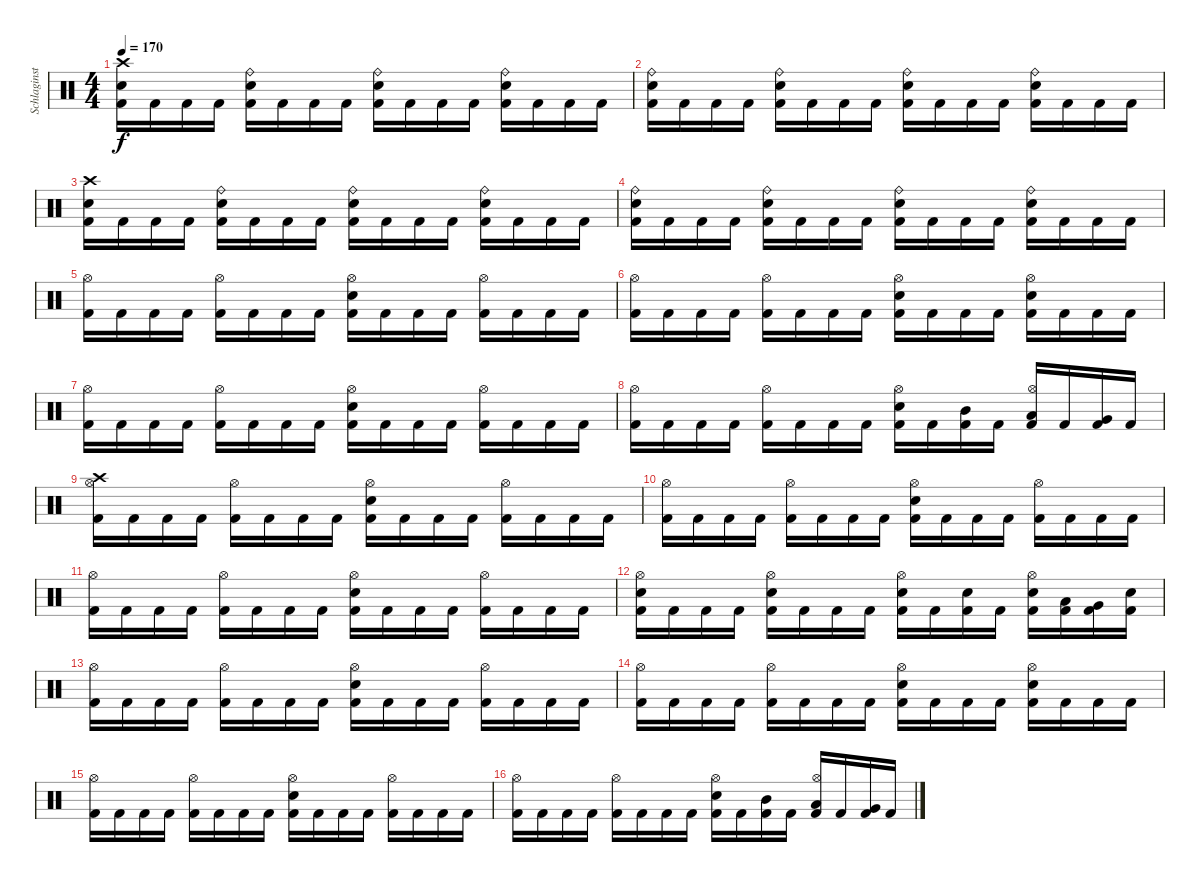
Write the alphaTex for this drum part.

\track ("Schlaginstrumente - Auswahl" "Schlaginst") {instrument percussion}
\staff {score}
\articulation defaults
\ts (4 4)
\tempo 170
\clef neutral
\ks c
("Crash high (hit)" "Snare (hit) 2" "Kick (hit) 2").16{dy f} "Kick (hit) 2".16 "Kick (hit) 2".16 "Kick (hit) 2".16 ("Ride (bell)" "Snare (hit) 2" "Kick (hit) 2").16 "Kick (hit) 2".16 "Kick (hit) 2".16 "Kick (hit) 2".16 ("Ride (bell)" "Snare (hit) 2" "Kick (hit) 2").16 "Kick (hit) 2".16 "Kick (hit) 2".16 "Kick (hit) 2".16 ("Ride (bell)" "Snare (hit) 2" "Kick (hit) 2").16 "Kick (hit) 2".16 "Kick (hit) 2".16 "Kick (hit) 2".16 |
("Ride (bell)" "Snare (hit) 2" "Kick (hit) 2").16 "Kick (hit) 2".16 "Kick (hit) 2".16 "Kick (hit) 2".16 ("Ride (bell)" "Snare (hit) 2" "Kick (hit) 2").16 "Kick (hit) 2".16 "Kick (hit) 2".16 "Kick (hit) 2".16 ("Ride (bell)" "Snare (hit) 2" "Kick (hit) 2").16 "Kick (hit) 2".16 "Kick (hit) 2".16 "Kick (hit) 2".16 ("Ride (bell)" "Snare (hit) 2" "Kick (hit) 2").16 "Kick (hit) 2".16 "Kick (hit) 2".16 "Kick (hit) 2".16 |
("Crash high (hit)" "Snare (hit) 2" "Kick (hit) 2").16 "Kick (hit) 2".16 "Kick (hit) 2".16 "Kick (hit) 2".16 ("Ride (bell)" "Snare (hit) 2" "Kick (hit) 2").16 "Kick (hit) 2".16 "Kick (hit) 2".16 "Kick (hit) 2".16 ("Ride (bell)" "Snare (hit) 2" "Kick (hit) 2").16 "Kick (hit) 2".16 "Kick (hit) 2".16 "Kick (hit) 2".16 ("Ride (bell)" "Snare (hit) 2" "Kick (hit) 2").16 "Kick (hit) 2".16 "Kick (hit) 2".16 "Kick (hit) 2".16 |
("Ride (bell)" "Snare (hit) 2" "Kick (hit) 2").16 "Kick (hit) 2".16 "Kick (hit) 2".16 "Kick (hit) 2".16 ("Ride (bell)" "Snare (hit) 2" "Kick (hit) 2").16 "Kick (hit) 2".16 "Kick (hit) 2".16 "Kick (hit) 2".16 ("Ride (bell)" "Snare (hit) 2" "Kick (hit) 2").16 "Kick (hit) 2".16 "Kick (hit) 2".16 "Kick (hit) 2".16 ("Ride (bell)" "Snare (hit) 2" "Kick (hit) 2").16 "Kick (hit) 2".16 "Kick (hit) 2".16 "Kick (hit) 2".16 |
("Hi-Hat (open)" "Kick (hit) 2").16 "Kick (hit) 2".16 "Kick (hit) 2".16 "Kick (hit) 2".16 ("Hi-Hat (open)" "Kick (hit) 2").16 "Kick (hit) 2".16 "Kick (hit) 2".16 "Kick (hit) 2".16 ("Hi-Hat (open)" "Snare (hit) 2" "Kick (hit) 2").16 "Kick (hit) 2".16 "Kick (hit) 2".16 "Kick (hit) 2".16 ("Hi-Hat (open)" "Kick (hit) 2").16 "Kick (hit) 2".16 "Kick (hit) 2".16 "Kick (hit) 2".16 |
("Hi-Hat (open)" "Kick (hit) 2").16 "Kick (hit) 2".16 "Kick (hit) 2".16 "Kick (hit) 2".16 ("Hi-Hat (open)" "Kick (hit) 2").16 "Kick (hit) 2".16 "Kick (hit) 2".16 "Kick (hit) 2".16 ("Hi-Hat (open)" "Snare (hit) 2" "Kick (hit) 2").16 "Kick (hit) 2".16 "Kick (hit) 2".16 "Kick (hit) 2".16 ("Hi-Hat (open)" "Snare (hit) 2" "Kick (hit) 2").16 "Kick (hit) 2".16 "Kick (hit) 2".16 "Kick (hit) 2".16 |
("Hi-Hat (open)" "Kick (hit) 2").16 "Kick (hit) 2".16 "Kick (hit) 2".16 "Kick (hit) 2".16 ("Hi-Hat (open)" "Kick (hit) 2").16 "Kick (hit) 2".16 "Kick (hit) 2".16 "Kick (hit) 2".16 ("Hi-Hat (open)" "Snare (hit) 2" "Kick (hit) 2").16 "Kick (hit) 2".16 "Kick (hit) 2".16 "Kick (hit) 2".16 ("Hi-Hat (open)" "Kick (hit) 2").16 "Kick (hit) 2".16 "Kick (hit) 2".16 "Kick (hit) 2".16 |
("Hi-Hat (open)" "Kick (hit) 2").16 "Kick (hit) 2".16 "Kick (hit) 2".16 "Kick (hit) 2".16 ("Hi-Hat (open)" "Kick (hit) 2").16 "Kick (hit) 2".16 "Kick (hit) 2".16 "Kick (hit) 2".16 ("Hi-Hat (open)" "Snare (hit) 2" "Kick (hit) 2").16 "Kick (hit) 2".16 ("Mid Tom (hit)" "Kick (hit) 2").16 "Kick (hit) 2".16 ("Hi-Hat (open)" "Low Tom (hit)" "Kick (hit) 2").16 "Kick (hit) 2".16 ("Very Low Tom (hit)" "Kick (hit) 2").16 "Kick (hit) 2".16 |
("Crash high (hit)" "Hi-Hat (open)" "Kick (hit) 2").16 "Kick (hit) 2".16 "Kick (hit) 2".16 "Kick (hit) 2".16 ("Hi-Hat (open)" "Kick (hit) 2").16 "Kick (hit) 2".16 "Kick (hit) 2".16 "Kick (hit) 2".16 ("Hi-Hat (open)" "Snare (hit) 2" "Kick (hit) 2").16 "Kick (hit) 2".16 "Kick (hit) 2".16 "Kick (hit) 2".16 ("Hi-Hat (open)" "Kick (hit) 2").16 "Kick (hit) 2".16 "Kick (hit) 2".16 "Kick (hit) 2".16 |
("Hi-Hat (open)" "Kick (hit) 2").16 "Kick (hit) 2".16 "Kick (hit) 2".16 "Kick (hit) 2".16 ("Hi-Hat (open)" "Kick (hit) 2").16 "Kick (hit) 2".16 "Kick (hit) 2".16 "Kick (hit) 2".16 ("Hi-Hat (open)" "Snare (hit) 2" "Kick (hit) 2").16 "Kick (hit) 2".16 "Kick (hit) 2".16 "Kick (hit) 2".16 ("Hi-Hat (open)" "Kick (hit) 2").16 "Kick (hit) 2".16 "Kick (hit) 2".16 "Kick (hit) 2".16 |
("Hi-Hat (open)" "Kick (hit) 2").16 "Kick (hit) 2".16 "Kick (hit) 2".16 "Kick (hit) 2".16 ("Hi-Hat (open)" "Kick (hit) 2").16 "Kick (hit) 2".16 "Kick (hit) 2".16 "Kick (hit) 2".16 ("Hi-Hat (open)" "Snare (hit) 2" "Kick (hit) 2").16 "Kick (hit) 2".16 "Kick (hit) 2".16 "Kick (hit) 2".16 ("Hi-Hat (open)" "Kick (hit) 2").16 "Kick (hit) 2".16 "Kick (hit) 2".16 "Kick (hit) 2".16 |
("Hi-Hat (open)" "Snare (hit) 2" "Kick (hit) 2").16 "Kick (hit) 2".16 "Kick (hit) 2".16 "Kick (hit) 2".16 ("Hi-Hat (open)" "Snare (hit) 2" "Kick (hit) 2").16 "Kick (hit) 2".16 "Kick (hit) 2".16 "Kick (hit) 2".16 ("Hi-Hat (open)" "Snare (hit) 2" "Kick (hit) 2").16 "Kick (hit) 2".16 ("Snare (hit) 2" "Kick (hit) 2").16 "Kick (hit) 2".16 ("Hi-Hat (open)" "Snare (hit) 2" "Kick (hit) 2").16 ("Low Tom (hit)" "Kick (hit) 2").16 ("Very Low Tom (hit)" "Kick (hit) 2").16 ("Snare (hit) 2" "Kick (hit) 2").16 |
("Hi-Hat (open)" "Kick (hit) 2").16 "Kick (hit) 2".16 "Kick (hit) 2".16 "Kick (hit) 2".16 ("Hi-Hat (open)" "Kick (hit) 2").16 "Kick (hit) 2".16 "Kick (hit) 2".16 "Kick (hit) 2".16 ("Hi-Hat (open)" "Snare (hit) 2" "Kick (hit) 2").16 "Kick (hit) 2".16 "Kick (hit) 2".16 "Kick (hit) 2".16 ("Hi-Hat (open)" "Kick (hit) 2").16 "Kick (hit) 2".16 "Kick (hit) 2".16 "Kick (hit) 2".16 |
("Hi-Hat (open)" "Kick (hit) 2").16 "Kick (hit) 2".16 "Kick (hit) 2".16 "Kick (hit) 2".16 ("Hi-Hat (open)" "Kick (hit) 2").16 "Kick (hit) 2".16 "Kick (hit) 2".16 "Kick (hit) 2".16 ("Hi-Hat (open)" "Snare (hit) 2" "Kick (hit) 2").16 "Kick (hit) 2".16 "Kick (hit) 2".16 "Kick (hit) 2".16 ("Hi-Hat (open)" "Snare (hit) 2" "Kick (hit) 2").16 "Kick (hit) 2".16 "Kick (hit) 2".16 "Kick (hit) 2".16 |
("Hi-Hat (open)" "Kick (hit) 2").16 "Kick (hit) 2".16 "Kick (hit) 2".16 "Kick (hit) 2".16 ("Hi-Hat (open)" "Kick (hit) 2").16 "Kick (hit) 2".16 "Kick (hit) 2".16 "Kick (hit) 2".16 ("Hi-Hat (open)" "Snare (hit) 2" "Kick (hit) 2").16 "Kick (hit) 2".16 "Kick (hit) 2".16 "Kick (hit) 2".16 ("Hi-Hat (open)" "Kick (hit) 2").16 "Kick (hit) 2".16 "Kick (hit) 2".16 "Kick (hit) 2".16 |
("Hi-Hat (open)" "Kick (hit) 2").16 "Kick (hit) 2".16 "Kick (hit) 2".16 "Kick (hit) 2".16 ("Hi-Hat (open)" "Kick (hit) 2").16 "Kick (hit) 2".16 "Kick (hit) 2".16 "Kick (hit) 2".16 ("Hi-Hat (open)" "Snare (hit) 2" "Kick (hit) 2").16 "Kick (hit) 2".16 ("Mid Tom (hit)" "Kick (hit) 2").16 "Kick (hit) 2".16 ("Hi-Hat (open)" "Low Tom (hit)" "Kick (hit) 2").16 "Kick (hit) 2".16 ("Very Low Tom (hit)" "Kick (hit) 2").16 "Kick (hit) 2".16
